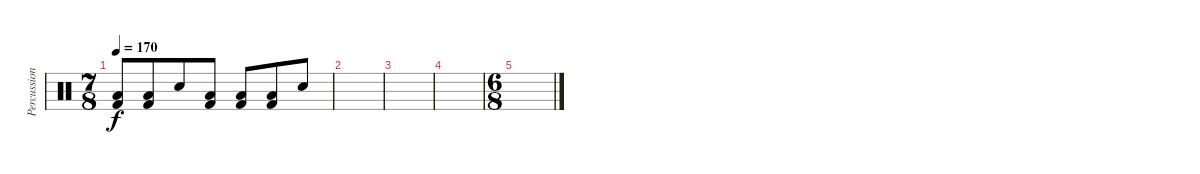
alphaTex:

\track ("Percussion" "Percussion") {instrument percussion}
\staff {score}
\articulation defaults
\ts (7 8)
\tempo 170
\clef neutral
\ks c
("Low Floor Tom (hit)" "Kick (hit) 2").8{dy f} ("Low Floor Tom (hit)" "Kick (hit) 2").8 "Electric Snare (hit)".8 ("Low Floor Tom (hit)" "Kick (hit) 2").8 ("Low Floor Tom (hit)" "Kick (hit) 2").8 ("Low Floor Tom (hit)" "Kick (hit) 2").8 "Electric Snare (hit)".8 |
|
|
|
\ts (6 8)
